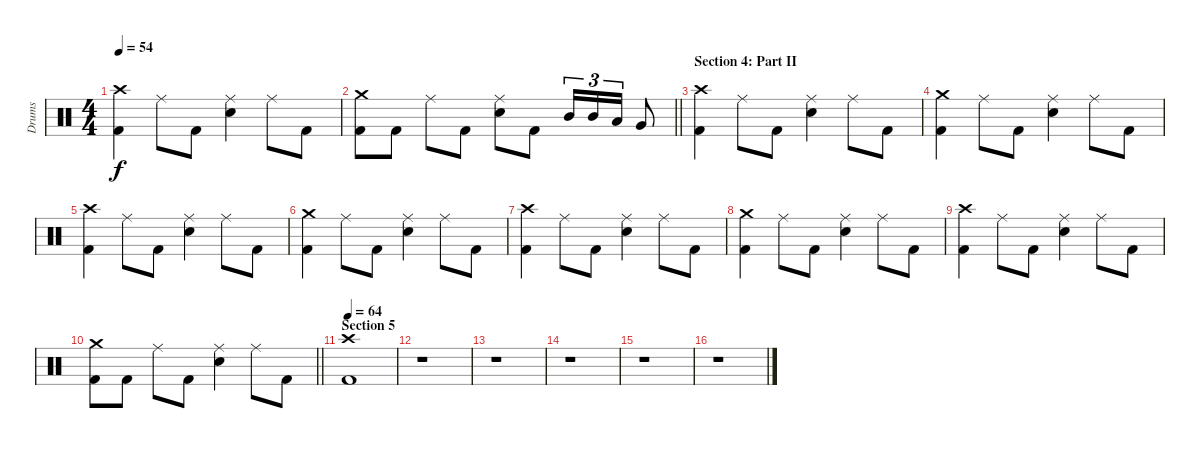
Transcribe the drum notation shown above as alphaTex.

\track ("Drums" "Drums") {instrument percussion}
\staff {score}
\articulation defaults
\ts (4 4)
\tempo 54
\clef neutral
\ks c
("Crash high (hit)" "Kick (hit) 2").4{dy f} "Ride (middle)".8 "Kick (hit) 2".8 ("Ride (middle)" "Electric Snare (hit)").4 "Ride (middle)".8 "Kick (hit) 2".8 |
\barLineRight lightlight
("Crash medium (hit)" "Kick (hit) 2").8 "Kick (hit) 2".8 "Ride (middle)".8 "Kick (hit) 2".8 ("Ride (middle)" "Electric Snare (hit)").8 "Kick (hit) 2".8 "Mid Tom (hit)".16{tu (3 2)} "Mid Tom (hit)".16{tu (3 2)} "Low Tom (hit)".16{tu (3 2)} "Very Low Tom (hit)".8 |
\section ("" "Section 4: Part II")
("Crash high (hit)" "Kick (hit) 2").4 "Ride (middle)".8 "Kick (hit) 2".8 ("Ride (middle)" "Electric Snare (hit)").4 "Ride (middle)".8 "Kick (hit) 2".8 |
("Crash medium (hit)" "Kick (hit) 2").4 "Ride (middle)".8 "Kick (hit) 2".8 ("Ride (middle)" "Electric Snare (hit)").4 "Ride (middle)".8 "Kick (hit) 2".8 |
("Crash high (hit)" "Kick (hit) 2").4 "Ride (middle)".8 "Kick (hit) 2".8 ("Ride (middle)" "Electric Snare (hit)").4 "Ride (middle)".8 "Kick (hit) 2".8 |
("Crash medium (hit)" "Kick (hit) 2").4 "Ride (middle)".8 "Kick (hit) 2".8 ("Ride (middle)" "Electric Snare (hit)").4 "Ride (middle)".8 "Kick (hit) 2".8 |
("Crash high (hit)" "Kick (hit) 2").4 "Ride (middle)".8 "Kick (hit) 2".8 ("Ride (middle)" "Electric Snare (hit)").4 "Ride (middle)".8 "Kick (hit) 2".8 |
("Crash medium (hit)" "Kick (hit) 2").4 "Ride (middle)".8 "Kick (hit) 2".8 ("Ride (middle)" "Electric Snare (hit)").4 "Ride (middle)".8 "Kick (hit) 2".8 |
("Crash high (hit)" "Kick (hit) 2").4 "Ride (middle)".8 "Kick (hit) 2".8 ("Ride (middle)" "Electric Snare (hit)").4 "Ride (middle)".8 "Kick (hit) 2".8 |
\barLineRight lightlight
("Crash medium (hit)" "Kick (hit) 2").8 "Kick (hit) 2".8 "Ride (middle)".8 "Kick (hit) 2".8 ("Ride (middle)" "Electric Snare (hit)").4 "Ride (middle)".8 "Kick (hit) 2".8 |
\section ("" "Section 5")
\tempo 64
("Crash high (hit)" "Kick (hit) 2").1 |
r.1 |
r.1 |
r.1 |
r.1 |
r.1
